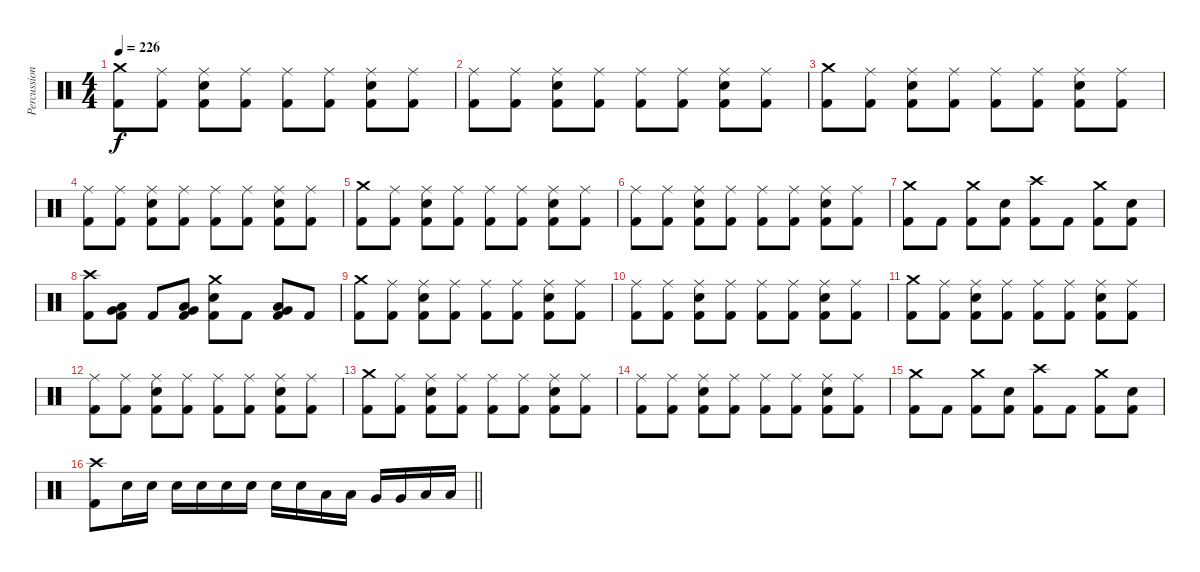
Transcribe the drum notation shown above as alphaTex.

\track ("Percussion" "Percussion") {instrument percussion}
\staff {score}
\articulation defaults
\ts (4 4)
\section ("" "")
\tempo 226
\clef neutral
\ks c
("Crash medium (hit)" "Kick (hit) 2").8{dy f} ("Ride (middle)" "Kick (hit) 2").8 ("Ride (middle)" "Snare (hit) 2" "Kick (hit) 2").8 ("Ride (middle)" "Kick (hit) 2").8 ("Ride (middle)" "Kick (hit) 2").8 ("Ride (middle)" "Kick (hit) 2").8 ("Ride (middle)" "Snare (hit) 2" "Kick (hit) 2").8 ("Ride (middle)" "Kick (hit) 2").8 |
("Ride (middle)" "Kick (hit) 2").8 ("Ride (middle)" "Kick (hit) 2").8 ("Ride (middle)" "Snare (hit) 2" "Kick (hit) 2").8 ("Ride (middle)" "Kick (hit) 2").8 ("Ride (middle)" "Kick (hit) 2").8 ("Ride (middle)" "Kick (hit) 2").8 ("Ride (middle)" "Snare (hit) 2" "Kick (hit) 2").8 ("Ride (middle)" "Kick (hit) 2").8 |
("Crash medium (hit)" "Kick (hit) 2").8 ("Ride (middle)" "Kick (hit) 2").8 ("Ride (middle)" "Snare (hit) 2" "Kick (hit) 2").8 ("Ride (middle)" "Kick (hit) 2").8 ("Ride (middle)" "Kick (hit) 2").8 ("Ride (middle)" "Kick (hit) 2").8 ("Ride (middle)" "Snare (hit) 2" "Kick (hit) 2").8 ("Ride (middle)" "Kick (hit) 2").8 |
("Ride (middle)" "Kick (hit) 2").8 ("Ride (middle)" "Kick (hit) 2").8 ("Ride (middle)" "Snare (hit) 2" "Kick (hit) 2").8 ("Ride (middle)" "Kick (hit) 2").8 ("Ride (middle)" "Kick (hit) 2").8 ("Ride (middle)" "Kick (hit) 2").8 ("Ride (middle)" "Snare (hit) 2" "Kick (hit) 2").8 ("Ride (middle)" "Kick (hit) 2").8 |
("Crash medium (hit)" "Kick (hit) 2").8 ("Ride (middle)" "Kick (hit) 2").8 ("Ride (middle)" "Snare (hit) 2" "Kick (hit) 2").8 ("Ride (middle)" "Kick (hit) 2").8 ("Ride (middle)" "Kick (hit) 2").8 ("Ride (middle)" "Kick (hit) 2").8 ("Ride (middle)" "Snare (hit) 2" "Kick (hit) 2").8 ("Ride (middle)" "Kick (hit) 2").8 |
("Ride (middle)" "Kick (hit) 2").8 ("Ride (middle)" "Kick (hit) 2").8 ("Ride (middle)" "Snare (hit) 2" "Kick (hit) 2").8 ("Ride (middle)" "Kick (hit) 2").8 ("Ride (middle)" "Kick (hit) 2").8 ("Ride (middle)" "Kick (hit) 2").8 ("Ride (middle)" "Snare (hit) 2" "Kick (hit) 2").8 ("Ride (middle)" "Kick (hit) 2").8 |
("Crash medium (hit)" "Kick (hit) 2").8 "Kick (hit) 2".8 ("Crash medium (hit)" "Kick (hit) 2").8 ("Snare (hit) 2" "Kick (hit) 2").8 ("Crash high (hit)" "Kick (hit) 2").8 "Kick (hit) 2".8 ("Crash medium (hit)" "Kick (hit) 2").8 ("Snare (hit) 2" "Kick (hit) 2").8 |
("Crash high (hit)" "Kick (hit) 2").8 ("Very Low Tom (hit)" "Low Floor Tom (hit)" "Kick (hit) 2").8 "Kick (hit) 2".8 ("Very Low Tom (hit)" "Low Tom (hit)" "Kick (hit) 2").8 ("Crash medium (hit)" "Snare (hit) 2" "Kick (hit) 2").8 "Kick (hit) 2".8 ("Low Floor Tom (hit)" "Very Low Tom (hit)" "Kick (hit) 2").8 "Kick (hit) 2".8 |
("Crash medium (hit)" "Kick (hit) 2").8 ("Ride (middle)" "Kick (hit) 2").8 ("Ride (middle)" "Snare (hit) 2" "Kick (hit) 2").8 ("Ride (middle)" "Kick (hit) 2").8 ("Ride (middle)" "Kick (hit) 2").8 ("Ride (middle)" "Kick (hit) 2").8 ("Ride (middle)" "Snare (hit) 2" "Kick (hit) 2").8 ("Ride (middle)" "Kick (hit) 2").8 |
("Ride (middle)" "Kick (hit) 2").8 ("Ride (middle)" "Kick (hit) 2").8 ("Ride (middle)" "Snare (hit) 2" "Kick (hit) 2").8 ("Ride (middle)" "Kick (hit) 2").8 ("Ride (middle)" "Kick (hit) 2").8 ("Ride (middle)" "Kick (hit) 2").8 ("Ride (middle)" "Snare (hit) 2" "Kick (hit) 2").8 ("Ride (middle)" "Kick (hit) 2").8 |
("Crash medium (hit)" "Kick (hit) 2").8 ("Ride (middle)" "Kick (hit) 2").8 ("Ride (middle)" "Snare (hit) 2" "Kick (hit) 2").8 ("Ride (middle)" "Kick (hit) 2").8 ("Ride (middle)" "Kick (hit) 2").8 ("Ride (middle)" "Kick (hit) 2").8 ("Ride (middle)" "Snare (hit) 2" "Kick (hit) 2").8 ("Ride (middle)" "Kick (hit) 2").8 |
("Ride (middle)" "Kick (hit) 2").8 ("Ride (middle)" "Kick (hit) 2").8 ("Ride (middle)" "Snare (hit) 2" "Kick (hit) 2").8 ("Ride (middle)" "Kick (hit) 2").8 ("Ride (middle)" "Kick (hit) 2").8 ("Ride (middle)" "Kick (hit) 2").8 ("Ride (middle)" "Snare (hit) 2" "Kick (hit) 2").8 ("Ride (middle)" "Kick (hit) 2").8 |
("Crash medium (hit)" "Kick (hit) 2").8 ("Ride (middle)" "Kick (hit) 2").8 ("Ride (middle)" "Snare (hit) 2" "Kick (hit) 2").8 ("Ride (middle)" "Kick (hit) 2").8 ("Ride (middle)" "Kick (hit) 2").8 ("Ride (middle)" "Kick (hit) 2").8 ("Ride (middle)" "Snare (hit) 2" "Kick (hit) 2").8 ("Ride (middle)" "Kick (hit) 2").8 |
("Ride (middle)" "Kick (hit) 2").8 ("Ride (middle)" "Kick (hit) 2").8 ("Ride (middle)" "Snare (hit) 2" "Kick (hit) 2").8 ("Ride (middle)" "Kick (hit) 2").8 ("Ride (middle)" "Kick (hit) 2").8 ("Ride (middle)" "Kick (hit) 2").8 ("Ride (middle)" "Snare (hit) 2" "Kick (hit) 2").8 ("Ride (middle)" "Kick (hit) 2").8 |
("Crash medium (hit)" "Kick (hit) 2").8 "Kick (hit) 2".8 ("Crash medium (hit)" "Kick (hit) 2").8 ("Snare (hit) 2" "Kick (hit) 2").8 ("Crash high (hit)" "Kick (hit) 2").8 "Kick (hit) 2".8 ("Crash medium (hit)" "Kick (hit) 2").8 ("Snare (hit) 2" "Kick (hit) 2").8 |
\barLineRight lightlight
("Crash high (hit)" "Kick (hit) 2").8 "Snare (hit) 2".16 "Snare (hit) 2".16 "Snare (hit) 2".16 "Snare (hit) 2".16 "Snare (hit) 2".16 "Snare (hit) 2".16 "Snare (hit) 2".16 "Snare (hit) 2".16 "Low Tom (hit)".16 "Low Tom (hit)".16 "Very Low Tom (hit)".16 "Very Low Tom (hit)".16 "Low Floor Tom (hit)".16 "Low Floor Tom (hit)".16
